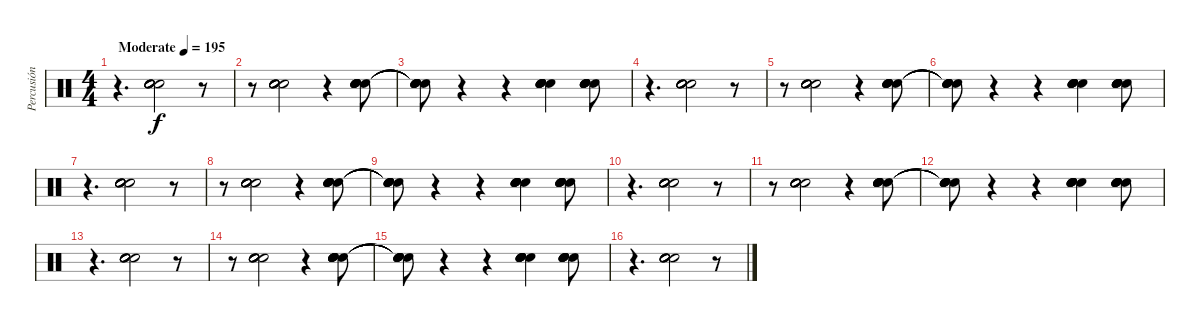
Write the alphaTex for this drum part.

\track ("Percusión" "Percusión") {instrument percussion}
\staff {score}
\articulation defaults
\ts (4 4)
\tempo (195 "Moderate")
\clef neutral
\ks c
r.4{d dy f} ("Hand Clap (hit)" "Hand Clap (hit)" "Hand Clap (hit)" "Hand Clap (hit)" "Hand Clap (hit)" "Hand Clap (hit)").2{bd 120} r.8 |
r.8 ("Hand Clap (hit)" "Hand Clap (hit)" "Hand Clap (hit)" "Hand Clap (hit)" "Hand Clap (hit)" "Hand Clap (hit)").2{bd 120} r.4 ("Hand Clap (hit)" "Hand Clap (hit)" "Hand Clap (hit)" "Hand Clap (hit)" "Hand Clap (hit)" "Hand Clap (hit)").8{bd 120} |
("Snare (hit)"{t} "Snare (hit)"{t} "Snare (hit)"{t} "Snare (hit)"{t} "Snare (hit)"{t} "Snare (hit)"{t}).8 r.4 r.4 ("Hand Clap (hit)" "Hand Clap (hit)" "Hand Clap (hit)" "Hand Clap (hit)" "Hand Clap (hit)" "Hand Clap (hit)").4{bd 120} ("Hand Clap (hit)" "Hand Clap (hit)" "Hand Clap (hit)" "Hand Clap (hit)" "Hand Clap (hit)" "Hand Clap (hit)").8{bd 120} |
r.4{d} ("Hand Clap (hit)" "Hand Clap (hit)" "Hand Clap (hit)" "Hand Clap (hit)" "Hand Clap (hit)" "Hand Clap (hit)").2{bd 120} r.8 |
r.8 ("Hand Clap (hit)" "Hand Clap (hit)" "Hand Clap (hit)" "Hand Clap (hit)" "Hand Clap (hit)" "Hand Clap (hit)").2{bd 120} r.4 ("Hand Clap (hit)" "Hand Clap (hit)" "Hand Clap (hit)" "Hand Clap (hit)" "Hand Clap (hit)" "Hand Clap (hit)").8{bd 120} |
("Snare (hit)"{t} "Snare (hit)"{t} "Snare (hit)"{t} "Snare (hit)"{t} "Snare (hit)"{t} "Snare (hit)"{t}).8 r.4 r.4 ("Hand Clap (hit)" "Hand Clap (hit)" "Hand Clap (hit)" "Hand Clap (hit)" "Hand Clap (hit)" "Hand Clap (hit)").4{bd 120} ("Hand Clap (hit)" "Hand Clap (hit)" "Hand Clap (hit)" "Hand Clap (hit)" "Hand Clap (hit)" "Hand Clap (hit)").8{bd 120} |
r.4{d} ("Hand Clap (hit)" "Hand Clap (hit)" "Hand Clap (hit)" "Hand Clap (hit)" "Hand Clap (hit)" "Hand Clap (hit)").2{bd 120} r.8 |
r.8 ("Hand Clap (hit)" "Hand Clap (hit)" "Hand Clap (hit)" "Hand Clap (hit)" "Hand Clap (hit)" "Hand Clap (hit)").2{bd 120} r.4 ("Hand Clap (hit)" "Hand Clap (hit)" "Hand Clap (hit)" "Hand Clap (hit)" "Hand Clap (hit)" "Hand Clap (hit)").8{bd 120} |
("Snare (hit)"{t} "Snare (hit)"{t} "Snare (hit)"{t} "Snare (hit)"{t} "Snare (hit)"{t} "Snare (hit)"{t}).8 r.4 r.4 ("Hand Clap (hit)" "Hand Clap (hit)" "Hand Clap (hit)" "Hand Clap (hit)" "Hand Clap (hit)" "Hand Clap (hit)").4{bd 120} ("Hand Clap (hit)" "Hand Clap (hit)" "Hand Clap (hit)" "Hand Clap (hit)" "Hand Clap (hit)" "Hand Clap (hit)").8{bd 120} |
r.4{d} ("Hand Clap (hit)" "Hand Clap (hit)" "Hand Clap (hit)" "Hand Clap (hit)" "Hand Clap (hit)" "Hand Clap (hit)").2{bd 120} r.8 |
r.8 ("Hand Clap (hit)" "Hand Clap (hit)" "Hand Clap (hit)" "Hand Clap (hit)" "Hand Clap (hit)" "Hand Clap (hit)").2{bd 120} r.4 ("Hand Clap (hit)" "Hand Clap (hit)" "Hand Clap (hit)" "Hand Clap (hit)" "Hand Clap (hit)" "Hand Clap (hit)").8{bd 120} |
("Snare (hit)"{t} "Snare (hit)"{t} "Snare (hit)"{t} "Snare (hit)"{t} "Snare (hit)"{t} "Snare (hit)"{t}).8 r.4 r.4 ("Hand Clap (hit)" "Hand Clap (hit)" "Hand Clap (hit)" "Hand Clap (hit)" "Hand Clap (hit)" "Hand Clap (hit)").4{bd 120} ("Hand Clap (hit)" "Hand Clap (hit)" "Hand Clap (hit)" "Hand Clap (hit)" "Hand Clap (hit)" "Hand Clap (hit)").8{bd 120} |
r.4{d} ("Hand Clap (hit)" "Hand Clap (hit)" "Hand Clap (hit)" "Hand Clap (hit)" "Hand Clap (hit)" "Hand Clap (hit)").2{bd 120} r.8 |
r.8 ("Hand Clap (hit)" "Hand Clap (hit)" "Hand Clap (hit)" "Hand Clap (hit)" "Hand Clap (hit)" "Hand Clap (hit)").2{bd 120} r.4 ("Hand Clap (hit)" "Hand Clap (hit)" "Hand Clap (hit)" "Hand Clap (hit)" "Hand Clap (hit)" "Hand Clap (hit)").8{bd 120} |
("Snare (hit)"{t} "Snare (hit)"{t} "Snare (hit)"{t} "Snare (hit)"{t} "Snare (hit)"{t} "Snare (hit)"{t}).8 r.4 r.4 ("Hand Clap (hit)" "Hand Clap (hit)" "Hand Clap (hit)" "Hand Clap (hit)" "Hand Clap (hit)" "Hand Clap (hit)").4{bd 120} ("Hand Clap (hit)" "Hand Clap (hit)" "Hand Clap (hit)" "Hand Clap (hit)" "Hand Clap (hit)" "Hand Clap (hit)").8{bd 120} |
r.4{d} ("Hand Clap (hit)" "Hand Clap (hit)" "Hand Clap (hit)" "Hand Clap (hit)" "Hand Clap (hit)" "Hand Clap (hit)").2{bd 120} r.8
